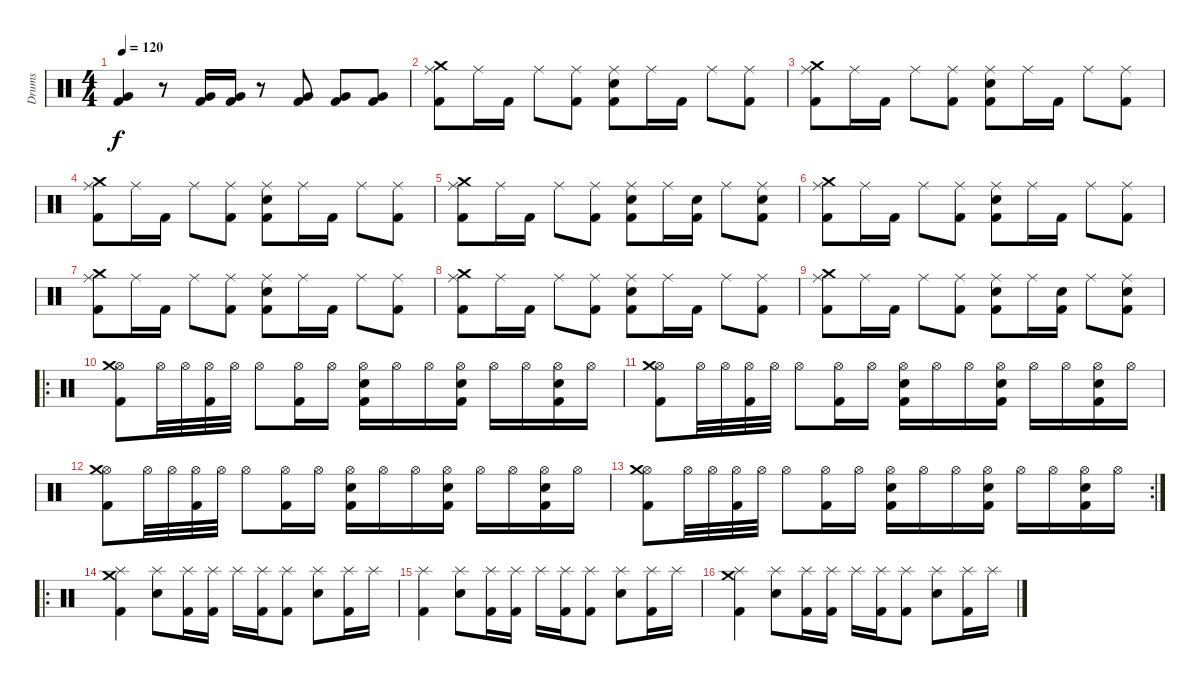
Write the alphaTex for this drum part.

\track ("Drums" "Drums") {instrument percussion}
\staff {score}
\articulation defaults
\ts (4 4)
\tempo 120
\clef neutral
\ks c
("Kick (hit) 2" "Very Low Tom (hit)").4{dy f} r.8 ("Kick (hit) 2" "Very Low Tom (hit)").16 ("Kick (hit) 2" "Very Low Tom (hit)").16 r.8 ("Kick (hit) 2" "Very Low Tom (hit)").8 ("Kick (hit) 2" "Very Low Tom (hit)").8 ("Kick (hit) 2" "Very Low Tom (hit)").8 |
("Kick (hit) 2" "Ride (middle)" "Crash medium (hit)").8 "Ride (middle)".16 "Kick (hit) 2".16 "Ride (middle)".8 ("Kick (hit) 2" "Ride (middle)").8 ("Kick (hit) 2" "Snare (hit) 2" "Ride (middle)").8 "Ride (middle)".16 "Kick (hit) 2".16 "Ride (middle)".8 ("Kick (hit) 2" "Ride (middle)").8 |
("Kick (hit) 2" "Ride (middle)" "Crash medium (hit)").8 "Ride (middle)".16 "Kick (hit) 2".16 "Ride (middle)".8 ("Kick (hit) 2" "Ride (middle)").8 ("Kick (hit) 2" "Snare (hit) 2" "Ride (middle)").8 "Ride (middle)".16 "Kick (hit) 2".16 "Ride (middle)".8 ("Kick (hit) 2" "Ride (middle)").8 |
("Kick (hit) 2" "Ride (middle)" "Crash medium (hit)").8 "Ride (middle)".16 "Kick (hit) 2".16 "Ride (middle)".8 ("Kick (hit) 2" "Ride (middle)").8 ("Kick (hit) 2" "Snare (hit) 2" "Ride (middle)").8 "Ride (middle)".16 "Kick (hit) 2".16 "Ride (middle)".8 ("Kick (hit) 2" "Ride (middle)").8 |
("Kick (hit) 2" "Ride (middle)" "Crash medium (hit)").8 "Ride (middle)".16 "Kick (hit) 2".16 "Ride (middle)".8 ("Kick (hit) 2" "Ride (middle)").8 ("Kick (hit) 2" "Snare (hit) 2" "Ride (middle)").8 "Ride (middle)".16 ("Kick (hit) 2" "Snare (hit) 2").16 "Ride (middle)".8 ("Kick (hit) 2" "Snare (hit) 2" "Ride (middle)").8 |
("Kick (hit) 2" "Ride (middle)" "Crash medium (hit)").8 "Ride (middle)".16 "Kick (hit) 2".16 "Ride (middle)".8 ("Kick (hit) 2" "Ride (middle)").8 ("Kick (hit) 2" "Snare (hit) 2" "Ride (middle)").8 "Ride (middle)".16 "Kick (hit) 2".16 "Ride (middle)".8 ("Kick (hit) 2" "Ride (middle)").8 |
("Kick (hit) 2" "Ride (middle)" "Crash medium (hit)").8 "Ride (middle)".16 "Kick (hit) 2".16 "Ride (middle)".8 ("Kick (hit) 2" "Ride (middle)").8 ("Kick (hit) 2" "Snare (hit) 2" "Ride (middle)").8 "Ride (middle)".16 "Kick (hit) 2".16 "Ride (middle)".8 ("Kick (hit) 2" "Ride (middle)").8 |
("Kick (hit) 2" "Ride (middle)" "Crash medium (hit)").8 "Ride (middle)".16 "Kick (hit) 2".16 "Ride (middle)".8 ("Kick (hit) 2" "Ride (middle)").8 ("Kick (hit) 2" "Snare (hit) 2" "Ride (middle)").8 "Ride (middle)".16 "Kick (hit) 2".16 "Ride (middle)".8 ("Kick (hit) 2" "Ride (middle)").8 |
("Kick (hit) 2" "Ride (middle)" "Crash medium (hit)").8 "Ride (middle)".16 "Kick (hit) 2".16 "Ride (middle)".8 ("Kick (hit) 2" "Ride (middle)").8 ("Kick (hit) 2" "Snare (hit) 2" "Ride (middle)").8 "Ride (middle)".16 ("Kick (hit) 2" "Snare (hit) 2").16 "Ride (middle)".8 ("Kick (hit) 2" "Snare (hit) 2" "Ride (middle)").8 |
\ro
("Kick (hit) 2" "Hi-Hat (open)" "Crash medium (hit)").8 "Hi-Hat (open)".32 "Hi-Hat (open)".32 ("Kick (hit) 2" "Hi-Hat (open)").32 "Hi-Hat (open)".32 "Hi-Hat (open)".8 ("Kick (hit) 2" "Hi-Hat (open)").16 "Hi-Hat (open)".16 ("Kick (hit) 2" "Snare (hit) 2" "Hi-Hat (open)").16 "Hi-Hat (open)".16 "Hi-Hat (open)".16 ("Kick (hit) 2" "Snare (hit) 2" "Hi-Hat (open)").16 "Hi-Hat (open)".16 "Hi-Hat (open)".16 ("Kick (hit) 2" "Snare (hit) 2" "Hi-Hat (open)").16 "Hi-Hat (open)".16 |
("Kick (hit) 2" "Hi-Hat (open)" "Crash medium (hit)").8 "Hi-Hat (open)".32 "Hi-Hat (open)".32 ("Kick (hit) 2" "Hi-Hat (open)").32 "Hi-Hat (open)".32 "Hi-Hat (open)".8 ("Kick (hit) 2" "Hi-Hat (open)").16 "Hi-Hat (open)".16 ("Kick (hit) 2" "Snare (hit) 2" "Hi-Hat (open)").16 "Hi-Hat (open)".16 "Hi-Hat (open)".16 ("Kick (hit) 2" "Snare (hit) 2" "Hi-Hat (open)").16 "Hi-Hat (open)".16 "Hi-Hat (open)".16 ("Kick (hit) 2" "Snare (hit) 2" "Hi-Hat (open)").16 "Hi-Hat (open)".16 |
("Kick (hit) 2" "Hi-Hat (open)" "Crash medium (hit)").8 "Hi-Hat (open)".32 "Hi-Hat (open)".32 ("Kick (hit) 2" "Hi-Hat (open)").32 "Hi-Hat (open)".32 "Hi-Hat (open)".8 ("Kick (hit) 2" "Hi-Hat (open)").16 "Hi-Hat (open)".16 ("Kick (hit) 2" "Snare (hit) 2" "Hi-Hat (open)").16 "Hi-Hat (open)".16 "Hi-Hat (open)".16 ("Kick (hit) 2" "Snare (hit) 2" "Hi-Hat (open)").16 "Hi-Hat (open)".16 "Hi-Hat (open)".16 ("Kick (hit) 2" "Snare (hit) 2" "Hi-Hat (open)").16 "Hi-Hat (open)".16 |
\rc 2
("Kick (hit) 2" "Hi-Hat (open)" "Crash medium (hit)").8 "Hi-Hat (open)".32 "Hi-Hat (open)".32 ("Kick (hit) 2" "Hi-Hat (open)").32 "Hi-Hat (open)".32 "Hi-Hat (open)".8 ("Kick (hit) 2" "Hi-Hat (open)").16 "Hi-Hat (open)".16 ("Kick (hit) 2" "Snare (hit) 2" "Hi-Hat (open)").16 "Hi-Hat (open)".16 "Hi-Hat (open)".16 ("Kick (hit) 2" "Snare (hit) 2" "Hi-Hat (open)").16 "Hi-Hat (open)".16 "Hi-Hat (open)".16 ("Kick (hit) 2" "Snare (hit) 2" "Hi-Hat (open)").16 "Hi-Hat (open)".16 |
\ro
("Kick (hit) 2" "Splash (hit)" "Crash medium (hit)").4 ("Snare (hit) 2" "Splash (hit)").8 ("Kick (hit) 2" "Splash (hit)").16 ("Kick (hit) 2" "Splash (hit)").16 "Splash (hit)".16 ("Kick (hit) 2" "Splash (hit)").16 ("Kick (hit) 2" "Splash (hit)").8 ("Snare (hit) 2" "Splash (hit)").8 ("Kick (hit) 2" "Splash (hit)").16 "Splash (hit)".16 |
("Kick (hit) 2" "Splash (hit)").4 ("Snare (hit) 2" "Splash (hit)").8 ("Kick (hit) 2" "Splash (hit)").16 ("Kick (hit) 2" "Splash (hit)").16 "Splash (hit)".16 ("Kick (hit) 2" "Splash (hit)").16 ("Kick (hit) 2" "Splash (hit)").8 ("Snare (hit) 2" "Splash (hit)").8 ("Kick (hit) 2" "Splash (hit)").16 "Splash (hit)".16 |
("Kick (hit) 2" "Splash (hit)" "Crash medium (hit)").4 ("Snare (hit) 2" "Splash (hit)").8 ("Kick (hit) 2" "Splash (hit)").16 ("Kick (hit) 2" "Splash (hit)").16 "Splash (hit)".16 ("Kick (hit) 2" "Splash (hit)").16 ("Kick (hit) 2" "Splash (hit)").8 ("Snare (hit) 2" "Splash (hit)").8 ("Kick (hit) 2" "Splash (hit)").16 "Splash (hit)".16
